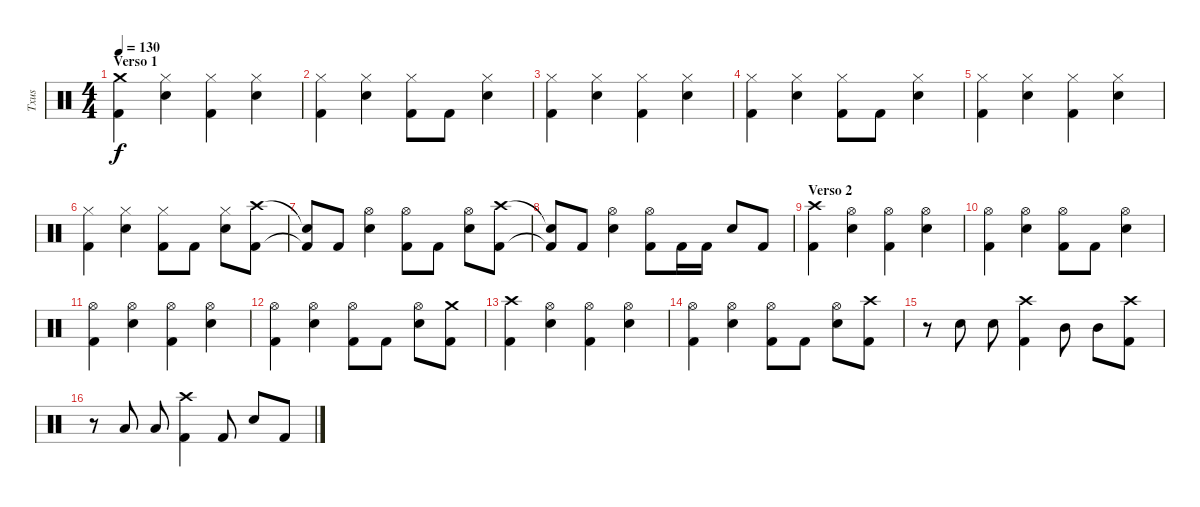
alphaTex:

\track ("Txus" "Txus") {instrument percussion}
\staff {score}
\articulation defaults
\ts (4 4)
\section ("" "Verso 1")
\tempo 130
\clef neutral
\ks c
("Kick (hit) 2" "Crash medium (hit)").4{dy f} ("Electric Snare (hit)" "Hi-Hat (closed)").4 ("Kick (hit) 2" "Hi-Hat (closed)").4 ("Electric Snare (hit)" "Hi-Hat (closed)").4 |
("Kick (hit) 2" "Hi-Hat (closed)").4 ("Electric Snare (hit)" "Hi-Hat (closed)").4 ("Kick (hit) 2" "Hi-Hat (closed)").8 "Kick (hit) 2".8 ("Electric Snare (hit)" "Hi-Hat (closed)").4 |
("Kick (hit) 2" "Hi-Hat (closed)").4 ("Electric Snare (hit)" "Hi-Hat (closed)").4 ("Kick (hit) 2" "Hi-Hat (closed)").4 ("Electric Snare (hit)" "Hi-Hat (closed)").4 |
("Kick (hit) 2" "Hi-Hat (closed)").4 ("Electric Snare (hit)" "Hi-Hat (closed)").4 ("Kick (hit) 2" "Hi-Hat (closed)").8 "Kick (hit) 2".8 ("Electric Snare (hit)" "Hi-Hat (closed)").4 |
("Kick (hit) 2" "Hi-Hat (closed)").4 ("Electric Snare (hit)" "Hi-Hat (closed)").4 ("Kick (hit) 2" "Hi-Hat (closed)").4 ("Electric Snare (hit)" "Hi-Hat (closed)").4 |
("Kick (hit) 2" "Hi-Hat (closed)").4 ("Electric Snare (hit)" "Hi-Hat (closed)").4 ("Kick (hit) 2" "Hi-Hat (closed)").8 "Kick (hit) 2".8 ("Electric Snare (hit)" "Hi-Hat (closed)").8 ("Kick (hit) 2" "Crash high (hit)").8 |
("Kick (hit) 2"{t} "Snare (hit)"{t}).8 "Kick (hit) 2".8 ("Electric Snare (hit)" "Hi-Hat (open)").4 ("Kick (hit) 2" "Hi-Hat (open)").8 "Kick (hit) 2".8 ("Electric Snare (hit)" "Hi-Hat (open)").8 ("Kick (hit) 2" "Crash high (hit)").8 |
("Kick (hit) 2"{t} "Snare (hit)"{t}).8 "Kick (hit) 2".8 ("Electric Snare (hit)" "Hi-Hat (open)").4 ("Kick (hit) 2" "Hi-Hat (open)").8 "Kick (hit) 2".16 "Kick (hit) 2".16 "Electric Snare (hit)".8 "Kick (hit) 2".8 |
\section ("" "Verso 2")
("Kick (hit) 2" "Crash high (hit)").4 ("Electric Snare (hit)" "Hi-Hat (open)").4 ("Kick (hit) 2" "Hi-Hat (open)").4 ("Electric Snare (hit)" "Hi-Hat (open)").4 |
("Kick (hit) 2" "Hi-Hat (open)").4 ("Electric Snare (hit)" "Hi-Hat (open)").4 ("Kick (hit) 2" "Hi-Hat (open)").8 "Kick (hit) 2".8 ("Electric Snare (hit)" "Hi-Hat (open)").4 |
("Kick (hit) 2" "Hi-Hat (open)").4 ("Electric Snare (hit)" "Hi-Hat (open)").4 ("Kick (hit) 2" "Hi-Hat (open)").4 ("Electric Snare (hit)" "Hi-Hat (open)").4 |
("Kick (hit) 2" "Hi-Hat (open)").4 ("Electric Snare (hit)" "Hi-Hat (open)").4 ("Kick (hit) 2" "Hi-Hat (open)").8 "Kick (hit) 2".8 ("Electric Snare (hit)" "Hi-Hat (open)").8 ("Kick (hit) 2" "Crash medium (hit)").8 |
("Kick (hit) 2" "Crash high (hit)").4 ("Electric Snare (hit)" "Hi-Hat (open)").4 ("Kick (hit) 2" "Hi-Hat (open)").4 ("Electric Snare (hit)" "Hi-Hat (open)").4 |
("Kick (hit) 2" "Hi-Hat (open)").4 ("Electric Snare (hit)" "Hi-Hat (open)").4 ("Kick (hit) 2" "Hi-Hat (open)").8 "Kick (hit) 2".8 ("Electric Snare (hit)" "Hi-Hat (open)").8 ("Kick (hit) 2" "Crash high (hit)").8 |
r.8 "Electric Snare (hit)".8 "Electric Snare (hit)".8 ("Kick (hit) 2" "Crash high (hit)").4 "Mid Tom (hit)".8 "Mid Tom (hit)".8 ("Kick (hit) 2" "Crash high (hit)").8 |
r.8 "Low Tom (hit)".8 "Low Tom (hit)".8 ("Kick (hit) 2" "Crash high (hit)").4 "Kick (hit) 2".8 "Electric Snare (hit)".8 "Kick (hit) 2".8
